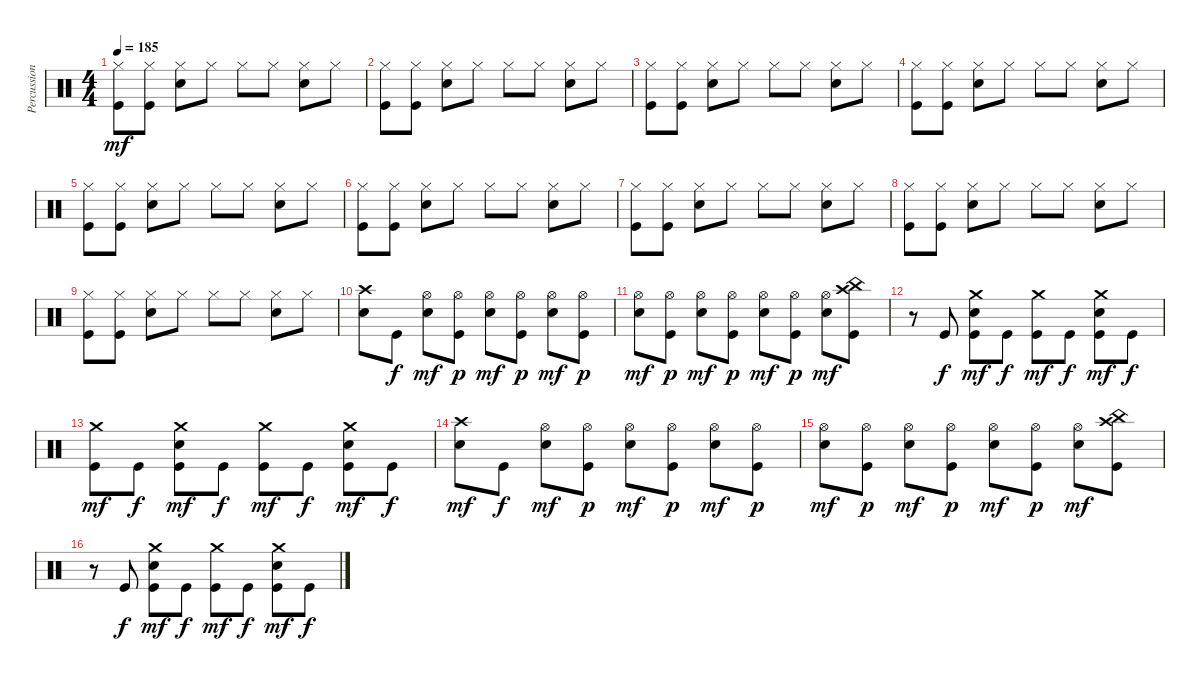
\track ("Percussions" "Percussion") {instrument percussion}
\staff {score}
\articulation defaults
\ts (4 4)
\tempo 185
\clef neutral
\ks c
("Kick (hit)" "Hi-Hat (closed)").8{dy mf} ("Kick (hit)" "Hi-Hat (closed)").8 ("Electric Snare (hit)" "Hi-Hat (closed)").8 "Hi-Hat (closed)".8 "Hi-Hat (closed)".8 "Hi-Hat (closed)".8 ("Electric Snare (hit)" "Hi-Hat (closed)").8 "Hi-Hat (closed)".8 |
("Kick (hit)" "Hi-Hat (closed)").8 ("Kick (hit)" "Hi-Hat (closed)").8 ("Electric Snare (hit)" "Hi-Hat (closed)").8 "Hi-Hat (closed)".8 "Hi-Hat (closed)".8 "Hi-Hat (closed)".8 ("Electric Snare (hit)" "Hi-Hat (closed)").8 "Hi-Hat (closed)".8 |
("Kick (hit)" "Hi-Hat (closed)").8 ("Kick (hit)" "Hi-Hat (closed)").8 ("Electric Snare (hit)" "Hi-Hat (closed)").8 "Hi-Hat (closed)".8 "Hi-Hat (closed)".8 "Hi-Hat (closed)".8 ("Electric Snare (hit)" "Hi-Hat (closed)").8 "Hi-Hat (closed)".8 |
("Kick (hit)" "Hi-Hat (closed)").8 ("Kick (hit)" "Hi-Hat (closed)").8 ("Electric Snare (hit)" "Hi-Hat (closed)").8 "Hi-Hat (closed)".8 "Hi-Hat (closed)".8 "Hi-Hat (closed)".8 ("Electric Snare (hit)" "Hi-Hat (closed)").8 "Hi-Hat (closed)".8 |
("Kick (hit)" "Hi-Hat (closed)").8 ("Kick (hit)" "Hi-Hat (closed)").8 ("Electric Snare (hit)" "Hi-Hat (closed)").8 "Hi-Hat (closed)".8 "Hi-Hat (closed)".8 "Hi-Hat (closed)".8 ("Electric Snare (hit)" "Hi-Hat (closed)").8 "Hi-Hat (closed)".8 |
("Kick (hit)" "Hi-Hat (closed)").8 ("Kick (hit)" "Hi-Hat (closed)").8 ("Electric Snare (hit)" "Hi-Hat (closed)").8 "Hi-Hat (closed)".8 "Hi-Hat (closed)".8 "Hi-Hat (closed)".8 ("Electric Snare (hit)" "Hi-Hat (closed)").8 "Hi-Hat (closed)".8 |
("Kick (hit)" "Hi-Hat (closed)").8 ("Kick (hit)" "Hi-Hat (closed)").8 ("Electric Snare (hit)" "Hi-Hat (closed)").8 "Hi-Hat (closed)".8 "Hi-Hat (closed)".8 "Hi-Hat (closed)".8 ("Electric Snare (hit)" "Hi-Hat (closed)").8 "Hi-Hat (closed)".8 |
("Kick (hit)" "Hi-Hat (closed)").8 ("Kick (hit)" "Hi-Hat (closed)").8 ("Electric Snare (hit)" "Hi-Hat (closed)").8 "Hi-Hat (closed)".8 "Hi-Hat (closed)".8 "Hi-Hat (closed)".8 ("Electric Snare (hit)" "Hi-Hat (closed)").8 "Hi-Hat (closed)".8 |
("Kick (hit)" "Hi-Hat (closed)").8 ("Kick (hit)" "Hi-Hat (closed)").8 ("Electric Snare (hit)" "Hi-Hat (closed)").8 "Hi-Hat (closed)".8 "Hi-Hat (closed)".8 "Hi-Hat (closed)".8 ("Electric Snare (hit)" "Hi-Hat (closed)").8 "Hi-Hat (closed)".8 |
("Electric Snare (hit)" "Crash high (hit)").8 "Kick (hit)".8{dy f} ("Electric Snare (hit)" "Hi-Hat (open)").8{dy mf} ("Kick (hit)" "Hi-Hat (open)").8{dy p} ("Electric Snare (hit)" "Hi-Hat (open)").8{dy mf} ("Kick (hit)" "Hi-Hat (open)").8{dy p} ("Electric Snare (hit)" "Hi-Hat (open)").8{dy mf} ("Kick (hit)" "Hi-Hat (open)").8{dy p} |
("Electric Snare (hit)" "Hi-Hat (open)").8{dy mf} ("Kick (hit)" "Hi-Hat (open)").8{dy p} ("Electric Snare (hit)" "Hi-Hat (open)").8{dy mf} ("Kick (hit)" "Hi-Hat (open)").8{dy p} ("Electric Snare (hit)" "Hi-Hat (open)").8{dy mf} ("Kick (hit)" "Hi-Hat (open)").8{dy p} ("Electric Snare (hit)" "Hi-Hat (open)").8{dy mf} ("Kick (hit)" "China (hit)" "Crash high (hit)").8 |
r.8 "Kick (hit)".8{dy f} ("Kick (hit)" "Electric Snare (hit)" "Crash medium (hit)").8{dy mf} "Kick (hit)".8{dy f} ("Kick (hit)" "Crash medium (hit)").8{dy mf} "Kick (hit)".8{dy f} ("Kick (hit)" "Electric Snare (hit)" "Crash medium (hit)").8{dy mf} "Kick (hit)".8{dy f} |
("Kick (hit)" "Crash medium (hit)").8{dy mf} "Kick (hit)".8{dy f} ("Kick (hit)" "Electric Snare (hit)" "Crash medium (hit)").8{dy mf} "Kick (hit)".8{dy f} ("Kick (hit)" "Crash medium (hit)").8{dy mf} "Kick (hit)".8{dy f} ("Kick (hit)" "Electric Snare (hit)" "Crash medium (hit)").8{dy mf} "Kick (hit)".8{dy f} |
("Electric Snare (hit)" "Crash high (hit)").8{dy mf} "Kick (hit)".8{dy f} ("Electric Snare (hit)" "Hi-Hat (open)").8{dy mf} ("Kick (hit)" "Hi-Hat (open)").8{dy p} ("Electric Snare (hit)" "Hi-Hat (open)").8{dy mf} ("Kick (hit)" "Hi-Hat (open)").8{dy p} ("Electric Snare (hit)" "Hi-Hat (open)").8{dy mf} ("Kick (hit)" "Hi-Hat (open)").8{dy p} |
("Electric Snare (hit)" "Hi-Hat (open)").8{dy mf} ("Kick (hit)" "Hi-Hat (open)").8{dy p} ("Electric Snare (hit)" "Hi-Hat (open)").8{dy mf} ("Kick (hit)" "Hi-Hat (open)").8{dy p} ("Electric Snare (hit)" "Hi-Hat (open)").8{dy mf} ("Kick (hit)" "Hi-Hat (open)").8{dy p} ("Electric Snare (hit)" "Hi-Hat (open)").8{dy mf} ("Kick (hit)" "China (hit)" "Crash high (hit)").8 |
r.8 "Kick (hit)".8{dy f} ("Kick (hit)" "Electric Snare (hit)" "Crash medium (hit)").8{dy mf} "Kick (hit)".8{dy f} ("Kick (hit)" "Crash medium (hit)").8{dy mf} "Kick (hit)".8{dy f} ("Kick (hit)" "Electric Snare (hit)" "Crash medium (hit)").8{dy mf} "Kick (hit)".8{dy f}
